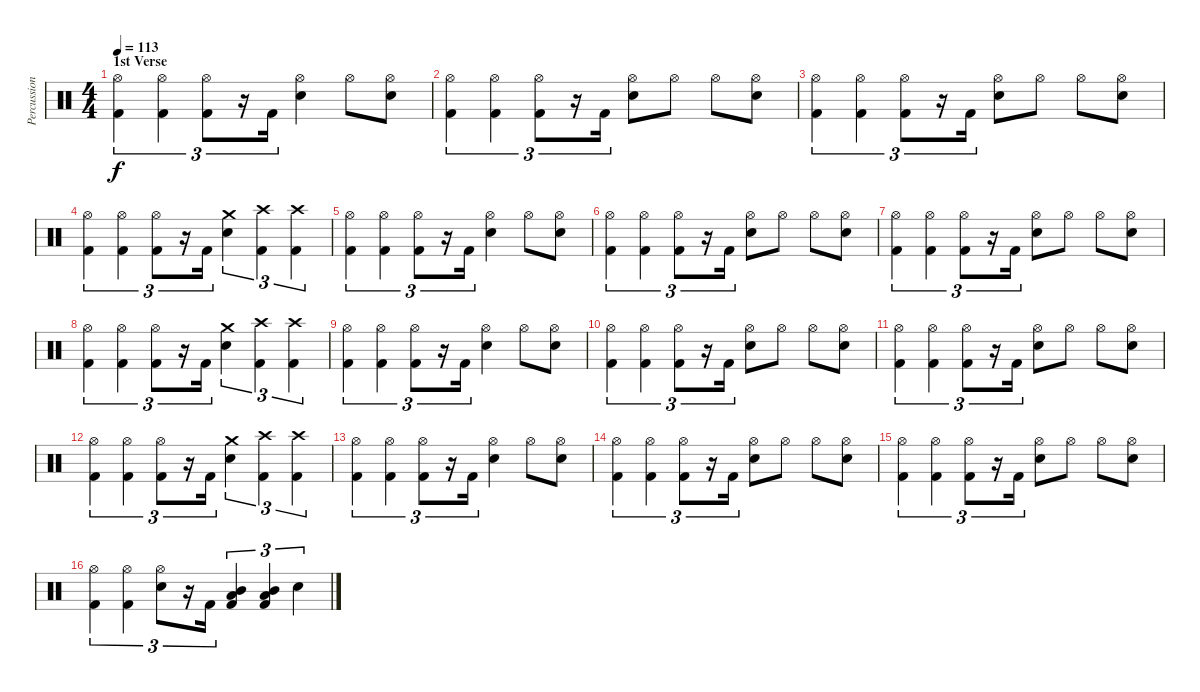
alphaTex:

\track ("Percussion" "Percussion") {instrument percussion}
\staff {score}
\articulation defaults
\ts (4 4)
\section ("" "1st Verse")
\tempo 113
\clef neutral
\ks c
("Kick (hit) 2" "Hi-Hat (open)").4{tu (3 2) dy f} ("Kick (hit) 2" "Hi-Hat (open)").4{tu (3 2)} ("Kick (hit) 2" "Hi-Hat (open)").8{tu (3 2)} r.16{tu (3 2)} "Kick (hit) 2".16{tu (3 2)} ("Electric Snare (hit)" "Hi-Hat (open)").4 "Hi-Hat (open)".8 ("Electric Snare (hit)" "Hi-Hat (open)").8 |
("Kick (hit) 2" "Hi-Hat (open)").4{tu (3 2)} ("Kick (hit) 2" "Hi-Hat (open)").4{tu (3 2)} ("Kick (hit) 2" "Hi-Hat (open)").8{tu (3 2)} r.16{tu (3 2)} "Kick (hit) 2".16{tu (3 2)} ("Electric Snare (hit)" "Hi-Hat (open)").8 "Hi-Hat (open)".8 "Hi-Hat (open)".8 ("Electric Snare (hit)" "Hi-Hat (open)").8 |
("Kick (hit) 2" "Hi-Hat (open)").4{tu (3 2)} ("Kick (hit) 2" "Hi-Hat (open)").4{tu (3 2)} ("Kick (hit) 2" "Hi-Hat (open)").8{tu (3 2)} r.16{tu (3 2)} "Kick (hit) 2".16{tu (3 2)} ("Electric Snare (hit)" "Hi-Hat (open)").8 "Hi-Hat (open)".8 "Hi-Hat (open)".8 ("Electric Snare (hit)" "Hi-Hat (open)").8 |
("Kick (hit) 2" "Hi-Hat (open)").4{tu (3 2)} ("Kick (hit) 2" "Hi-Hat (open)").4{tu (3 2)} ("Kick (hit) 2" "Hi-Hat (open)").8{tu (3 2)} r.16{tu (3 2)} "Kick (hit) 2".16{tu (3 2)} ("Electric Snare (hit)" "Crash medium (hit)").4{tu (3 2)} ("Kick (hit) 2" "Crash high (hit)").4{tu (3 2)} ("Kick (hit) 2" "Crash high (hit)").4{tu (3 2)} |
("Kick (hit) 2" "Hi-Hat (open)").4{tu (3 2)} ("Kick (hit) 2" "Hi-Hat (open)").4{tu (3 2)} ("Kick (hit) 2" "Hi-Hat (open)").8{tu (3 2)} r.16{tu (3 2)} "Kick (hit) 2".16{tu (3 2)} ("Electric Snare (hit)" "Hi-Hat (open)").4 "Hi-Hat (open)".8 ("Electric Snare (hit)" "Hi-Hat (open)").8 |
("Kick (hit) 2" "Hi-Hat (open)").4{tu (3 2)} ("Kick (hit) 2" "Hi-Hat (open)").4{tu (3 2)} ("Kick (hit) 2" "Hi-Hat (open)").8{tu (3 2)} r.16{tu (3 2)} "Kick (hit) 2".16{tu (3 2)} ("Electric Snare (hit)" "Hi-Hat (open)").8 "Hi-Hat (open)".8 "Hi-Hat (open)".8 ("Electric Snare (hit)" "Hi-Hat (open)").8 |
("Kick (hit) 2" "Hi-Hat (open)").4{tu (3 2)} ("Kick (hit) 2" "Hi-Hat (open)").4{tu (3 2)} ("Kick (hit) 2" "Hi-Hat (open)").8{tu (3 2)} r.16{tu (3 2)} "Kick (hit) 2".16{tu (3 2)} ("Electric Snare (hit)" "Hi-Hat (open)").8 "Hi-Hat (open)".8 "Hi-Hat (open)".8 ("Electric Snare (hit)" "Hi-Hat (open)").8 |
("Kick (hit) 2" "Hi-Hat (open)").4{tu (3 2)} ("Kick (hit) 2" "Hi-Hat (open)").4{tu (3 2)} ("Kick (hit) 2" "Hi-Hat (open)").8{tu (3 2)} r.16{tu (3 2)} "Kick (hit) 2".16{tu (3 2)} ("Electric Snare (hit)" "Crash medium (hit)").4{tu (3 2)} ("Kick (hit) 2" "Crash high (hit)").4{tu (3 2)} ("Kick (hit) 2" "Crash high (hit)").4{tu (3 2)} |
("Kick (hit) 2" "Hi-Hat (open)").4{tu (3 2)} ("Kick (hit) 2" "Hi-Hat (open)").4{tu (3 2)} ("Kick (hit) 2" "Hi-Hat (open)").8{tu (3 2)} r.16{tu (3 2)} "Kick (hit) 2".16{tu (3 2)} ("Electric Snare (hit)" "Hi-Hat (open)").4 "Hi-Hat (open)".8 ("Electric Snare (hit)" "Hi-Hat (open)").8 |
("Kick (hit) 2" "Hi-Hat (open)").4{tu (3 2)} ("Kick (hit) 2" "Hi-Hat (open)").4{tu (3 2)} ("Kick (hit) 2" "Hi-Hat (open)").8{tu (3 2)} r.16{tu (3 2)} "Kick (hit) 2".16{tu (3 2)} ("Electric Snare (hit)" "Hi-Hat (open)").8 "Hi-Hat (open)".8 "Hi-Hat (open)".8 ("Electric Snare (hit)" "Hi-Hat (open)").8 |
("Kick (hit) 2" "Hi-Hat (open)").4{tu (3 2)} ("Kick (hit) 2" "Hi-Hat (open)").4{tu (3 2)} ("Kick (hit) 2" "Hi-Hat (open)").8{tu (3 2)} r.16{tu (3 2)} "Kick (hit) 2".16{tu (3 2)} ("Electric Snare (hit)" "Hi-Hat (open)").8 "Hi-Hat (open)".8 "Hi-Hat (open)".8 ("Electric Snare (hit)" "Hi-Hat (open)").8 |
("Kick (hit) 2" "Hi-Hat (open)").4{tu (3 2)} ("Kick (hit) 2" "Hi-Hat (open)").4{tu (3 2)} ("Kick (hit) 2" "Hi-Hat (open)").8{tu (3 2)} r.16{tu (3 2)} "Kick (hit) 2".16{tu (3 2)} ("Electric Snare (hit)" "Crash medium (hit)").4{tu (3 2)} ("Kick (hit) 2" "Crash high (hit)").4{tu (3 2)} ("Kick (hit) 2" "Crash high (hit)").4{tu (3 2)} |
("Kick (hit) 2" "Hi-Hat (open)").4{tu (3 2)} ("Kick (hit) 2" "Hi-Hat (open)").4{tu (3 2)} ("Kick (hit) 2" "Hi-Hat (open)").8{tu (3 2)} r.16{tu (3 2)} "Kick (hit) 2".16{tu (3 2)} ("Electric Snare (hit)" "Hi-Hat (open)").4 "Hi-Hat (open)".8 ("Electric Snare (hit)" "Hi-Hat (open)").8 |
("Kick (hit) 2" "Hi-Hat (open)").4{tu (3 2)} ("Kick (hit) 2" "Hi-Hat (open)").4{tu (3 2)} ("Kick (hit) 2" "Hi-Hat (open)").8{tu (3 2)} r.16{tu (3 2)} "Kick (hit) 2".16{tu (3 2)} ("Electric Snare (hit)" "Hi-Hat (open)").8 "Hi-Hat (open)".8 "Hi-Hat (open)".8 ("Electric Snare (hit)" "Hi-Hat (open)").8 |
("Kick (hit) 2" "Hi-Hat (open)").4{tu (3 2)} ("Kick (hit) 2" "Hi-Hat (open)").4{tu (3 2)} ("Kick (hit) 2" "Hi-Hat (open)").8{tu (3 2)} r.16{tu (3 2)} "Kick (hit) 2".16{tu (3 2)} ("Electric Snare (hit)" "Hi-Hat (open)").8 "Hi-Hat (open)".8 "Hi-Hat (open)".8 ("Electric Snare (hit)" "Hi-Hat (open)").8 |
("Kick (hit) 2" "Hi-Hat (open)").4{tu (3 2)} ("Kick (hit) 2" "Hi-Hat (open)").4{tu (3 2)} ("Electric Snare (hit)" "Hi-Hat (open)").8{tu (3 2)} r.16{tu (3 2)} "Kick (hit) 2".16{tu (3 2)} ("Kick (hit) 2" "Low Tom (hit)" "Mid Tom (hit)").4{tu (3 2)} ("Kick (hit) 2" "Low Tom (hit)" "Mid Tom (hit)").4{tu (3 2)} "Electric Snare (hit)".4{tu (3 2)}
